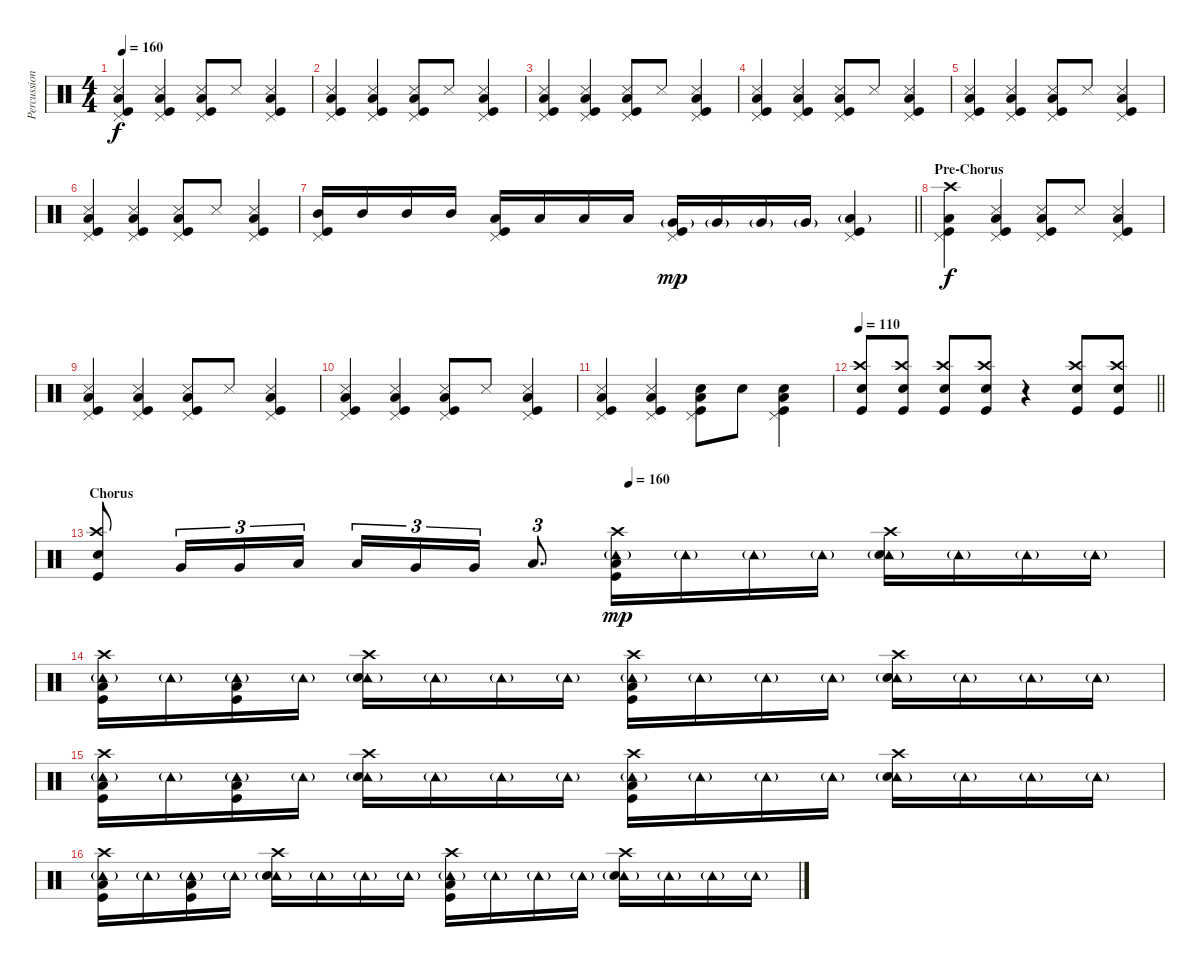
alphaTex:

\track ("Percussion" "Percussion") {instrument percussion}
\staff {score}
\articulation defaults
\ts (4 4)
\tempo 160
\clef neutral
\ks c
("Snare (side stick) 3" "Low Floor Tom (hit)" "Kick (hit)" "Pedal Hi-Hat (hit)").4{dy f} ("Snare (side stick) 3" "Low Floor Tom (hit)" "Kick (hit)" "Pedal Hi-Hat (hit)").4 ("Snare (side stick) 3" "Low Floor Tom (hit)" "Kick (hit)" "Pedal Hi-Hat (hit)").8 "Snare (side stick) 3".8 ("Snare (side stick) 3" "Low Floor Tom (hit)" "Kick (hit)" "Pedal Hi-Hat (hit)").4 |
("Snare (side stick) 3" "Low Floor Tom (hit)" "Kick (hit)" "Pedal Hi-Hat (hit)").4 ("Snare (side stick) 3" "Low Floor Tom (hit)" "Kick (hit)" "Pedal Hi-Hat (hit)").4 ("Snare (side stick) 3" "Low Floor Tom (hit)" "Kick (hit)" "Pedal Hi-Hat (hit)").8 "Snare (side stick) 3".8 ("Snare (side stick) 3" "Low Floor Tom (hit)" "Kick (hit)" "Pedal Hi-Hat (hit)").4 |
("Snare (side stick) 3" "Low Floor Tom (hit)" "Kick (hit)" "Pedal Hi-Hat (hit)").4 ("Snare (side stick) 3" "Low Floor Tom (hit)" "Kick (hit)" "Pedal Hi-Hat (hit)").4 ("Snare (side stick) 3" "Low Floor Tom (hit)" "Kick (hit)" "Pedal Hi-Hat (hit)").8 "Snare (side stick) 3".8 ("Snare (side stick) 3" "Low Floor Tom (hit)" "Kick (hit)" "Pedal Hi-Hat (hit)").4 |
("Snare (side stick) 3" "Low Floor Tom (hit)" "Kick (hit)" "Pedal Hi-Hat (hit)").4 ("Snare (side stick) 3" "Low Floor Tom (hit)" "Kick (hit)" "Pedal Hi-Hat (hit)").4 ("Snare (side stick) 3" "Low Floor Tom (hit)" "Kick (hit)" "Pedal Hi-Hat (hit)").8 "Snare (side stick) 3".8 ("Snare (side stick) 3" "Low Floor Tom (hit)" "Kick (hit)" "Pedal Hi-Hat (hit)").4 |
("Snare (side stick) 3" "Low Floor Tom (hit)" "Kick (hit)" "Pedal Hi-Hat (hit)").4 ("Snare (side stick) 3" "Low Floor Tom (hit)" "Kick (hit)" "Pedal Hi-Hat (hit)").4 ("Snare (side stick) 3" "Low Floor Tom (hit)" "Kick (hit)" "Pedal Hi-Hat (hit)").8 "Snare (side stick) 3".8 ("Snare (side stick) 3" "Low Floor Tom (hit)" "Kick (hit)" "Pedal Hi-Hat (hit)").4 |
("Snare (side stick) 3" "Low Floor Tom (hit)" "Kick (hit)" "Pedal Hi-Hat (hit)").4 ("Snare (side stick) 3" "Low Floor Tom (hit)" "Kick (hit)" "Pedal Hi-Hat (hit)").4 ("Snare (side stick) 3" "Low Floor Tom (hit)" "Kick (hit)" "Pedal Hi-Hat (hit)").8 "Snare (side stick) 3".8 ("Snare (side stick) 3" "Low Floor Tom (hit)" "Kick (hit)" "Pedal Hi-Hat (hit)").4 |
\barLineRight lightlight
("Mid Tom (hit)" "Kick (hit)" "Pedal Hi-Hat (hit)").16 "Mid Tom (hit)".16 "Mid Tom (hit)".16 "Mid Tom (hit)".16 ("Low Tom (hit)" "Kick (hit)" "Pedal Hi-Hat (hit)").16 "Low Tom (hit)".16 "Low Tom (hit)".16 "Low Tom (hit)".16 ("Very Low Tom (hit)"{g} "Kick (hit)" "Pedal Hi-Hat (hit)").16{dy mp} "Very Low Tom (hit)"{g}.16 "Very Low Tom (hit)"{g}.16 "Very Low Tom (hit)"{g}.16 ("Low Floor Tom (hit)"{g} "Kick (hit)" "Pedal Hi-Hat (hit)").4 |
\section ("" "Pre-Chorus")
("Crash high (hit)" "Low Floor Tom (hit)" "Kick (hit)" "Pedal Hi-Hat (hit)").4{dy f} ("Snare (side stick) 3" "Low Floor Tom (hit)" "Kick (hit)" "Pedal Hi-Hat (hit)").4 ("Snare (side stick) 3" "Low Floor Tom (hit)" "Kick (hit)" "Pedal Hi-Hat (hit)").8 "Snare (side stick) 3".8 ("Snare (side stick) 3" "Low Floor Tom (hit)" "Kick (hit)" "Pedal Hi-Hat (hit)").4 |
("Snare (side stick) 3" "Low Floor Tom (hit)" "Kick (hit)" "Pedal Hi-Hat (hit)").4 ("Snare (side stick) 3" "Low Floor Tom (hit)" "Kick (hit)" "Pedal Hi-Hat (hit)").4 ("Snare (side stick) 3" "Low Floor Tom (hit)" "Kick (hit)" "Pedal Hi-Hat (hit)").8 "Snare (side stick) 3".8 ("Snare (side stick) 3" "Low Floor Tom (hit)" "Kick (hit)" "Pedal Hi-Hat (hit)").4 |
("Snare (side stick) 3" "Low Floor Tom (hit)" "Kick (hit)" "Pedal Hi-Hat (hit)").4 ("Snare (side stick) 3" "Low Floor Tom (hit)" "Kick (hit)" "Pedal Hi-Hat (hit)").4 ("Snare (side stick) 3" "Low Floor Tom (hit)" "Kick (hit)" "Pedal Hi-Hat (hit)").8 "Snare (side stick) 3".8 ("Snare (side stick) 3" "Low Floor Tom (hit)" "Kick (hit)" "Pedal Hi-Hat (hit)").4 |
("Snare (side stick) 3" "Low Floor Tom (hit)" "Kick (hit)" "Pedal Hi-Hat (hit)").4 ("Snare (side stick) 3" "Low Floor Tom (hit)" "Kick (hit)" "Pedal Hi-Hat (hit)").4 ("Hand Clap (hit)" "Low Floor Tom (hit)" "Kick (hit)" "Pedal Hi-Hat (hit)").8 "Hand Clap (hit)".8 ("Hand Clap (hit)" "Low Floor Tom (hit)" "Kick (hit)" "Pedal Hi-Hat (hit)").4 |
\tempo 110
\barLineRight lightlight
("Crash high (hit)" "Snare (hit) 2" "Kick (hit)").8 ("Crash high (hit)" "Snare (hit) 2" "Kick (hit)").8 ("Crash high (hit)" "Snare (hit) 2" "Kick (hit)").8 ("Crash high (hit)" "Snare (hit) 2" "Kick (hit)").8 r.4 ("Crash high (hit)" "Snare (hit) 2" "Kick (hit)").8 ("Crash high (hit)" "Snare (hit) 2" "Kick (hit)").8 |
\section ("" "Chorus")
\tempo (160 0.5)
("Crash high (hit)" "Snare (hit) 2" "Kick (hit)").8 "Very Low Tom (hit)".16{tu (3 2)} "Very Low Tom (hit)".16{tu (3 2)} "Low Floor Tom (hit)".16{tu (3 2)} "Low Floor Tom (hit)".16{tu (3 2)} "Very Low Tom (hit)".16{tu (3 2)} "Very Low Tom (hit)".16{tu (3 2)} "Low Tom (hit)".8{d tu (3 2)} ("Tambourine (hit)"{g} "Crash high (hit)" "Low Floor Tom (hit)" "Kick (hit)").16{dy mp} "Tambourine (hit)"{g}.16 "Tambourine (hit)"{g}.16 "Tambourine (hit)"{g}.16 ("Tambourine (hit)"{g} "Crash high (hit)" "Snare (hit) 2").16 "Tambourine (hit)"{g}.16 "Tambourine (hit)"{g}.16 "Tambourine (hit)"{g}.16 |
("Tambourine (hit)"{g} "Crash high (hit)" "Low Floor Tom (hit)" "Kick (hit)").16 "Tambourine (hit)"{g}.16 ("Tambourine (hit)"{g} "Low Floor Tom (hit)" "Kick (hit)").16 "Tambourine (hit)"{g}.16 ("Tambourine (hit)"{g} "Crash high (hit)" "Snare (hit) 2").16 "Tambourine (hit)"{g}.16 "Tambourine (hit)"{g}.16 "Tambourine (hit)"{g}.16 ("Tambourine (hit)"{g} "Crash high (hit)" "Low Floor Tom (hit)" "Kick (hit)").16 "Tambourine (hit)"{g}.16 "Tambourine (hit)"{g}.16 "Tambourine (hit)"{g}.16 ("Tambourine (hit)"{g} "Crash high (hit)" "Snare (hit) 2").16 "Tambourine (hit)"{g}.16 "Tambourine (hit)"{g}.16 "Tambourine (hit)"{g}.16 |
("Tambourine (hit)"{g} "Crash high (hit)" "Low Floor Tom (hit)" "Kick (hit)").16 "Tambourine (hit)"{g}.16 ("Tambourine (hit)"{g} "Low Floor Tom (hit)" "Kick (hit)").16 "Tambourine (hit)"{g}.16 ("Tambourine (hit)"{g} "Crash high (hit)" "Snare (hit) 2").16 "Tambourine (hit)"{g}.16 "Tambourine (hit)"{g}.16 "Tambourine (hit)"{g}.16 ("Tambourine (hit)"{g} "Crash high (hit)" "Low Floor Tom (hit)" "Kick (hit)").16 "Tambourine (hit)"{g}.16 "Tambourine (hit)"{g}.16 "Tambourine (hit)"{g}.16 ("Tambourine (hit)"{g} "Crash high (hit)" "Snare (hit) 2").16 "Tambourine (hit)"{g}.16 "Tambourine (hit)"{g}.16 "Tambourine (hit)"{g}.16 |
("Tambourine (hit)"{g} "Crash high (hit)" "Low Floor Tom (hit)" "Kick (hit)").16 "Tambourine (hit)"{g}.16 ("Tambourine (hit)"{g} "Low Floor Tom (hit)" "Kick (hit)").16 "Tambourine (hit)"{g}.16 ("Tambourine (hit)"{g} "Crash high (hit)" "Snare (hit) 2").16 "Tambourine (hit)"{g}.16 "Tambourine (hit)"{g}.16 "Tambourine (hit)"{g}.16 ("Tambourine (hit)"{g} "Crash high (hit)" "Low Floor Tom (hit)" "Kick (hit)").16 "Tambourine (hit)"{g}.16 "Tambourine (hit)"{g}.16 "Tambourine (hit)"{g}.16 ("Tambourine (hit)"{g} "Crash high (hit)" "Snare (hit) 2").16 "Tambourine (hit)"{g}.16 "Tambourine (hit)"{g}.16 "Tambourine (hit)"{g}.16
